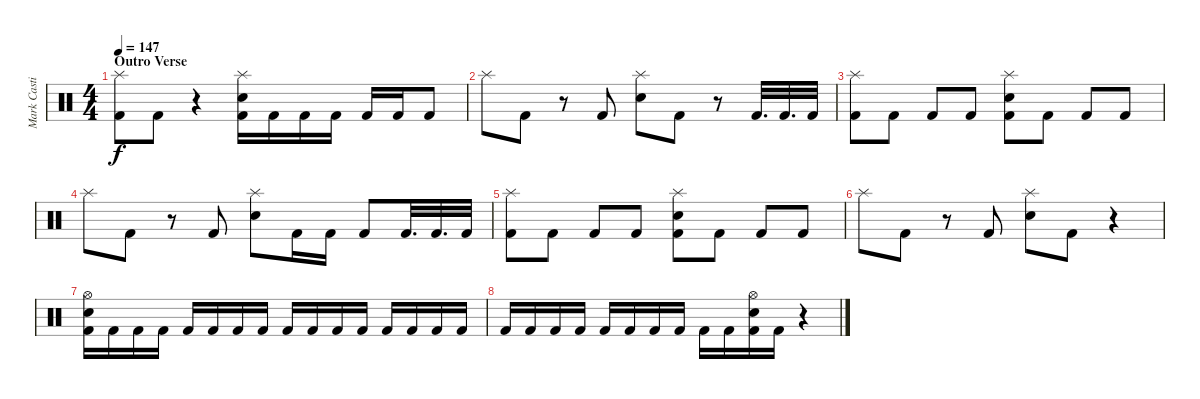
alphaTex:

\track ("Mark Castillo" "Mark Casti") {instrument percussion}
\staff {score}
\articulation defaults
\ts (4 4)
\section ("" "Outro Verse")
\tempo 147
\clef neutral
\ks c
("Splash (hit)" "Kick (hit) 2").8{dy f} "Kick (hit) 2".8 r.4 ("Splash (hit)" "Snare (hit) 2" "Kick (hit) 2").16 "Kick (hit) 2".16 "Kick (hit) 2".16 "Kick (hit) 2".16 "Kick (hit) 2".16 "Kick (hit) 2".16 "Kick (hit) 2".8 |
"Splash (hit)".8 "Kick (hit) 2".8 r.8 "Kick (hit) 2".8 ("Splash (hit)" "Snare (hit) 2").8 "Kick (hit) 2".8 r.8 "Kick (hit) 2".32{d} "Kick (hit) 2".32{d} "Kick (hit) 2".32 |
("Splash (hit)" "Kick (hit) 2").8 "Kick (hit) 2".8 "Kick (hit) 2".8 "Kick (hit) 2".8 ("Splash (hit)" "Snare (hit) 2" "Kick (hit) 2").8 "Kick (hit) 2".8 "Kick (hit) 2".8 "Kick (hit) 2".8 |
"Splash (hit)".8 "Kick (hit) 2".8 r.8 "Kick (hit) 2".8 ("Splash (hit)" "Snare (hit) 2").8 "Kick (hit) 2".16 "Kick (hit) 2".16 "Kick (hit) 2".8 "Kick (hit) 2".32{d} "Kick (hit) 2".32{d} "Kick (hit) 2".32 |
("Splash (hit)" "Kick (hit) 2").8 "Kick (hit) 2".8 "Kick (hit) 2".8 "Kick (hit) 2".8 ("Splash (hit)" "Snare (hit) 2" "Kick (hit) 2").8 "Kick (hit) 2".8 "Kick (hit) 2".8 "Kick (hit) 2".8 |
"Splash (hit)".8 "Kick (hit) 2".8 r.8 "Kick (hit) 2".8 ("Splash (hit)" "Snare (hit) 2").8 "Kick (hit) 2".8 r.4 |
("Hi-Hat (open)" "Snare (hit) 2" "Kick (hit) 2").16 "Kick (hit) 2".16 "Kick (hit) 2".16 "Kick (hit) 2".16 "Kick (hit) 2".16 "Kick (hit) 2".16 "Kick (hit) 2".16 "Kick (hit) 2".16 "Kick (hit) 2".16 "Kick (hit) 2".16 "Kick (hit) 2".16 "Kick (hit) 2".16 "Kick (hit) 2".16 "Kick (hit) 2".16 "Kick (hit) 2".16 "Kick (hit) 2".16 |
"Kick (hit) 2".16 "Kick (hit) 2".16 "Kick (hit) 2".16 "Kick (hit) 2".16 "Kick (hit) 2".16 "Kick (hit) 2".16 "Kick (hit) 2".16 "Kick (hit) 2".16 "Kick (hit) 2".16 "Kick (hit) 2".16 ("Hi-Hat (open)" "Snare (hit) 2" "Kick (hit) 2").16 "Kick (hit) 2".16 r.4
